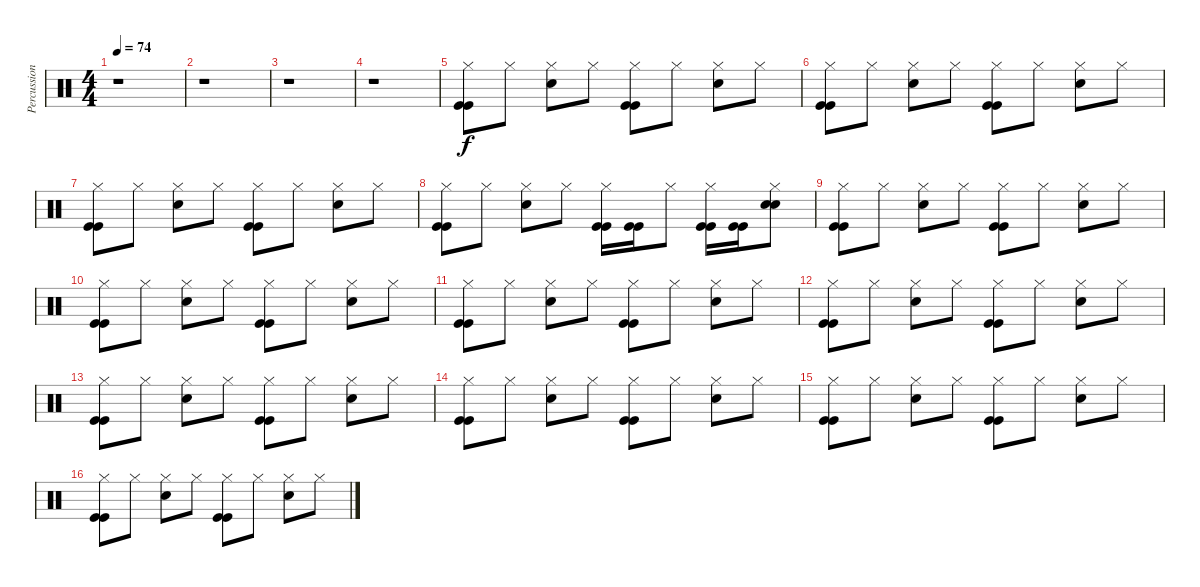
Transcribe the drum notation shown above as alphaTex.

\track ("Percussions" "Percussion") {instrument percussion}
\staff {score}
\articulation defaults
\ts (4 4)
\tempo 74
\clef neutral
\ks c
r.1{dy f} |
r.1 |
r.1 |
r.1 |
("Hi-Hat (closed)" "Kick (hit)" "Kick (hit)").8 "Hi-Hat (closed)".8 ("Hi-Hat (closed)" "Snare (hit) 2").8 "Hi-Hat (closed)".8 ("Hi-Hat (closed)" "Kick (hit)" "Kick (hit)").8 "Hi-Hat (closed)".8 ("Hi-Hat (closed)" "Snare (hit) 2").8 "Hi-Hat (closed)".8 |
("Hi-Hat (closed)" "Kick (hit)" "Kick (hit)").8 "Hi-Hat (closed)".8 ("Hi-Hat (closed)" "Snare (hit) 2").8 "Hi-Hat (closed)".8 ("Hi-Hat (closed)" "Kick (hit)" "Kick (hit)").8 "Hi-Hat (closed)".8 ("Hi-Hat (closed)" "Snare (hit) 2").8 "Hi-Hat (closed)".8 |
("Hi-Hat (closed)" "Kick (hit)" "Kick (hit)").8 "Hi-Hat (closed)".8 ("Hi-Hat (closed)" "Snare (hit) 2").8 "Hi-Hat (closed)".8 ("Hi-Hat (closed)" "Kick (hit)" "Kick (hit)").8 "Hi-Hat (closed)".8 ("Hi-Hat (closed)" "Snare (hit) 2").8 "Hi-Hat (closed)".8 |
("Hi-Hat (closed)" "Kick (hit)" "Kick (hit)").8 "Hi-Hat (closed)".8 ("Hi-Hat (closed)" "Snare (hit) 2").8 "Hi-Hat (closed)".8 ("Hi-Hat (closed)" "Kick (hit)" "Kick (hit)").16 ("Kick (hit)" "Kick (hit)").16 "Hi-Hat (closed)".8 ("Hi-Hat (closed)" "Kick (hit)" "Kick (hit)").16 ("Kick (hit)" "Kick (hit)").16 ("Hi-Hat (closed)" "Snare (hit) 2" "Snare (hit) 2").8 |
("Hi-Hat (closed)" "Kick (hit)" "Kick (hit)").8 "Hi-Hat (closed)".8 ("Hi-Hat (closed)" "Snare (hit) 2").8 "Hi-Hat (closed)".8 ("Hi-Hat (closed)" "Kick (hit)" "Kick (hit)").8 "Hi-Hat (closed)".8 ("Hi-Hat (closed)" "Snare (hit) 2").8 "Hi-Hat (closed)".8 |
("Hi-Hat (closed)" "Kick (hit)" "Kick (hit)").8 "Hi-Hat (closed)".8 ("Hi-Hat (closed)" "Snare (hit) 2").8 "Hi-Hat (closed)".8 ("Hi-Hat (closed)" "Kick (hit)" "Kick (hit)").8 "Hi-Hat (closed)".8 ("Hi-Hat (closed)" "Snare (hit) 2").8 "Hi-Hat (closed)".8 |
("Hi-Hat (closed)" "Kick (hit)" "Kick (hit)").8 "Hi-Hat (closed)".8 ("Hi-Hat (closed)" "Snare (hit) 2").8 "Hi-Hat (closed)".8 ("Hi-Hat (closed)" "Kick (hit)" "Kick (hit)").8 "Hi-Hat (closed)".8 ("Hi-Hat (closed)" "Snare (hit) 2").8 "Hi-Hat (closed)".8 |
("Hi-Hat (closed)" "Kick (hit)" "Kick (hit)").8 "Hi-Hat (closed)".8 ("Hi-Hat (closed)" "Snare (hit) 2").8 "Hi-Hat (closed)".8 ("Hi-Hat (closed)" "Kick (hit)" "Kick (hit)").8 "Hi-Hat (closed)".8 ("Hi-Hat (closed)" "Snare (hit) 2").8 "Hi-Hat (closed)".8 |
("Hi-Hat (closed)" "Kick (hit)" "Kick (hit)").8 "Hi-Hat (closed)".8 ("Hi-Hat (closed)" "Snare (hit) 2").8 "Hi-Hat (closed)".8 ("Hi-Hat (closed)" "Kick (hit)" "Kick (hit)").8 "Hi-Hat (closed)".8 ("Hi-Hat (closed)" "Snare (hit) 2").8 "Hi-Hat (closed)".8 |
("Hi-Hat (closed)" "Kick (hit)" "Kick (hit)").8 "Hi-Hat (closed)".8 ("Hi-Hat (closed)" "Snare (hit) 2").8 "Hi-Hat (closed)".8 ("Hi-Hat (closed)" "Kick (hit)" "Kick (hit)").8 "Hi-Hat (closed)".8 ("Hi-Hat (closed)" "Snare (hit) 2").8 "Hi-Hat (closed)".8 |
("Hi-Hat (closed)" "Kick (hit)" "Kick (hit)").8 "Hi-Hat (closed)".8 ("Hi-Hat (closed)" "Snare (hit) 2").8 "Hi-Hat (closed)".8 ("Hi-Hat (closed)" "Kick (hit)" "Kick (hit)").8 "Hi-Hat (closed)".8 ("Hi-Hat (closed)" "Snare (hit) 2").8 "Hi-Hat (closed)".8 |
("Hi-Hat (closed)" "Kick (hit)" "Kick (hit)").8 "Hi-Hat (closed)".8 ("Hi-Hat (closed)" "Snare (hit) 2").8 "Hi-Hat (closed)".8 ("Hi-Hat (closed)" "Kick (hit)" "Kick (hit)").8 "Hi-Hat (closed)".8 ("Hi-Hat (closed)" "Snare (hit) 2").8 "Hi-Hat (closed)".8
